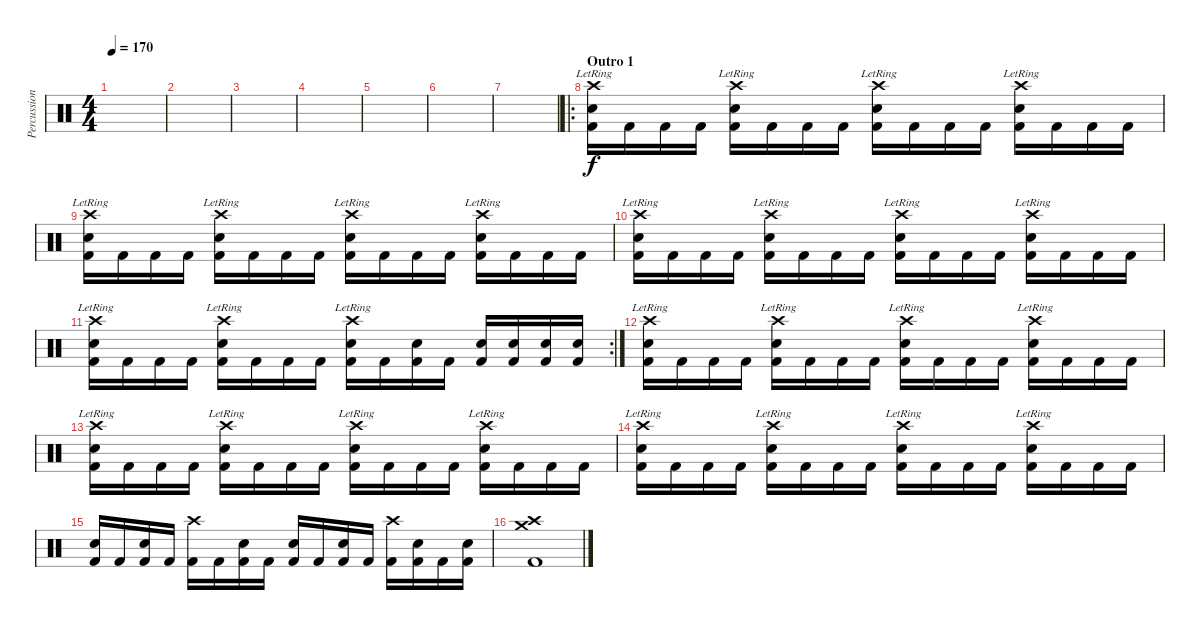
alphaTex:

\track ("Percussion" "Percussion") {instrument percussion}
\staff {score}
\articulation defaults
\ts (4 4)
\tempo 170
\clef neutral
\ks c
|
|
|
|
|
|
|
\ro
\section ("" "Outro 1")
("Crash high (hit)"{lr} "Electric Snare (hit)" "Kick (hit) 2").16 "Kick (hit) 2".16 "Kick (hit) 2".16 "Kick (hit) 2".16 ("Crash high (hit)"{lr} "Electric Snare (hit)" "Kick (hit) 2").16 "Kick (hit) 2".16 "Kick (hit) 2".16 "Kick (hit) 2".16 ("Crash high (hit)"{lr} "Electric Snare (hit)" "Kick (hit) 2").16 "Kick (hit) 2".16 "Kick (hit) 2".16 "Kick (hit) 2".16 ("Crash high (hit)"{lr} "Electric Snare (hit)" "Kick (hit) 2").16 "Kick (hit) 2".16 "Kick (hit) 2".16 "Kick (hit) 2".16 |
("Crash high (hit)"{lr} "Electric Snare (hit)" "Kick (hit) 2").16 "Kick (hit) 2".16 "Kick (hit) 2".16 "Kick (hit) 2".16 ("Crash high (hit)"{lr} "Electric Snare (hit)" "Kick (hit) 2").16 "Kick (hit) 2".16 "Kick (hit) 2".16 "Kick (hit) 2".16 ("Crash high (hit)"{lr} "Electric Snare (hit)" "Kick (hit) 2").16 "Kick (hit) 2".16 "Kick (hit) 2".16 "Kick (hit) 2".16 ("Crash high (hit)"{lr} "Electric Snare (hit)" "Kick (hit) 2").16 "Kick (hit) 2".16 "Kick (hit) 2".16 "Kick (hit) 2".16 |
("Crash high (hit)"{lr} "Electric Snare (hit)" "Kick (hit) 2").16 "Kick (hit) 2".16 "Kick (hit) 2".16 "Kick (hit) 2".16 ("Crash high (hit)"{lr} "Electric Snare (hit)" "Kick (hit) 2").16 "Kick (hit) 2".16 "Kick (hit) 2".16 "Kick (hit) 2".16 ("Crash high (hit)"{lr} "Electric Snare (hit)" "Kick (hit) 2").16 "Kick (hit) 2".16 "Kick (hit) 2".16 "Kick (hit) 2".16 ("Crash high (hit)"{lr} "Electric Snare (hit)" "Kick (hit) 2").16 "Kick (hit) 2".16 "Kick (hit) 2".16 "Kick (hit) 2".16 |
\rc 2
("Crash high (hit)"{lr} "Electric Snare (hit)" "Kick (hit) 2").16 "Kick (hit) 2".16 "Kick (hit) 2".16 "Kick (hit) 2".16 ("Crash high (hit)"{lr} "Electric Snare (hit)" "Kick (hit) 2").16 "Kick (hit) 2".16 "Kick (hit) 2".16 "Kick (hit) 2".16 ("Crash high (hit)"{lr} "Electric Snare (hit)" "Kick (hit) 2").16 "Kick (hit) 2".16 ("Electric Snare (hit)" "Kick (hit) 2").16 "Kick (hit) 2".16 ("Electric Snare (hit)" "Kick (hit) 2").16 ("Electric Snare (hit)" "Kick (hit) 2").16 ("Electric Snare (hit)" "Kick (hit) 2").16 ("Electric Snare (hit)" "Kick (hit) 2").16 |
("Crash high (hit)"{lr} "Electric Snare (hit)" "Kick (hit) 2").16 "Kick (hit) 2".16 "Kick (hit) 2".16 "Kick (hit) 2".16 ("Crash high (hit)"{lr} "Electric Snare (hit)" "Kick (hit) 2").16 "Kick (hit) 2".16 "Kick (hit) 2".16 "Kick (hit) 2".16 ("Crash high (hit)"{lr} "Electric Snare (hit)" "Kick (hit) 2").16 "Kick (hit) 2".16 "Kick (hit) 2".16 "Kick (hit) 2".16 ("Crash high (hit)"{lr} "Electric Snare (hit)" "Kick (hit) 2").16 "Kick (hit) 2".16 "Kick (hit) 2".16 "Kick (hit) 2".16 |
("Crash high (hit)"{lr} "Electric Snare (hit)" "Kick (hit) 2").16 "Kick (hit) 2".16 "Kick (hit) 2".16 "Kick (hit) 2".16 ("Crash high (hit)"{lr} "Electric Snare (hit)" "Kick (hit) 2").16 "Kick (hit) 2".16 "Kick (hit) 2".16 "Kick (hit) 2".16 ("Crash high (hit)"{lr} "Electric Snare (hit)" "Kick (hit) 2").16 "Kick (hit) 2".16 "Kick (hit) 2".16 "Kick (hit) 2".16 ("Crash high (hit)"{lr} "Electric Snare (hit)" "Kick (hit) 2").16 "Kick (hit) 2".16 "Kick (hit) 2".16 "Kick (hit) 2".16 |
("Crash high (hit)"{lr} "Electric Snare (hit)" "Kick (hit) 2").16 "Kick (hit) 2".16 "Kick (hit) 2".16 "Kick (hit) 2".16 ("Crash high (hit)"{lr} "Electric Snare (hit)" "Kick (hit) 2").16 "Kick (hit) 2".16 "Kick (hit) 2".16 "Kick (hit) 2".16 ("Crash high (hit)"{lr} "Electric Snare (hit)" "Kick (hit) 2").16 "Kick (hit) 2".16 "Kick (hit) 2".16 "Kick (hit) 2".16 ("Crash high (hit)"{lr} "Electric Snare (hit)" "Kick (hit) 2").16 "Kick (hit) 2".16 "Kick (hit) 2".16 "Kick (hit) 2".16 |
("Electric Snare (hit)" "Kick (hit) 2").16 "Kick (hit) 2".16 ("Electric Snare (hit)" "Kick (hit) 2").16 "Kick (hit) 2".16 ("Crash high (hit)" "Kick (hit) 2").16 "Kick (hit) 2".16 ("Electric Snare (hit)" "Kick (hit) 2").16 "Kick (hit) 2".16 ("Electric Snare (hit)" "Kick (hit) 2").16 "Kick (hit) 2".16 ("Electric Snare (hit)" "Kick (hit) 2").16 "Kick (hit) 2".16 ("Crash high (hit)" "Kick (hit) 2").16 ("Electric Snare (hit)" "Kick (hit) 2").16 "Kick (hit) 2".16 ("Electric Snare (hit)" "Kick (hit) 2").16 |
("Crash high (hit)" "Crash medium (hit)" "Kick (hit) 2").1
